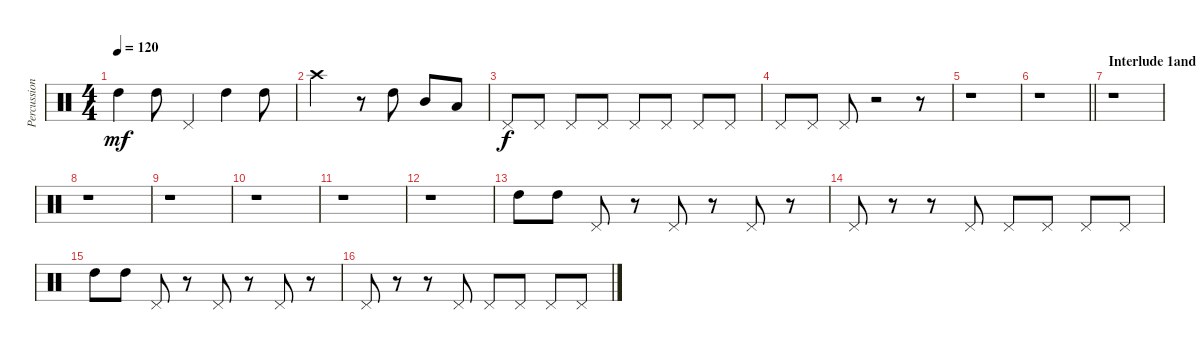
\track ("Percussion" "Percussion") {instrument percussion}
\staff {score}
\articulation defaults
\ts (4 4)
\tempo 120
\clef neutral
\ks c "High Tom (hit)".4{dy mf} "High Tom (hit)".8 "Pedal Hi-Hat (hit)".4 "High Tom (hit)".4 "High Tom (hit)".8
|
"Crash high (hit)".2 r.8 "High Tom (hit)".8 "Mid Tom (hit)".8 "Low Tom (hit)".8 |
"Pedal Hi-Hat (hit)".8{dy f} "Pedal Hi-Hat (hit)".8 "Pedal Hi-Hat (hit)".8 "Pedal Hi-Hat (hit)".8 "Pedal Hi-Hat (hit)".8 "Pedal Hi-Hat (hit)".8 "Pedal Hi-Hat (hit)".8 "Pedal Hi-Hat (hit)".8 |
"Pedal Hi-Hat (hit)".8 "Pedal Hi-Hat (hit)".8 "Pedal Hi-Hat (hit)".8 r.2 r.8 |
r.1 |
\barLineRight lightlight
r.1 |
\section ("" "Interlude 1and Guitar Solo ")
r.1 |
r.1 |
r.1 |
r.1 |
r.1 |
r.1 |
"High Tom (hit)".8 "High Tom (hit)".8 "Pedal Hi-Hat (hit)".8 r.8 "Pedal Hi-Hat (hit)".8 r.8 "Pedal Hi-Hat (hit)".8 r.8 |
"Pedal Hi-Hat (hit)".8 r.8 r.8 "Pedal Hi-Hat (hit)".8 "Pedal Hi-Hat (hit)".8 "Pedal Hi-Hat (hit)".8 "Pedal Hi-Hat (hit)".8 "Pedal Hi-Hat (hit)".8 |
"High Tom (hit)".8 "High Tom (hit)".8 "Pedal Hi-Hat (hit)".8 r.8 "Pedal Hi-Hat (hit)".8 r.8 "Pedal Hi-Hat (hit)".8 r.8 |
"Pedal Hi-Hat (hit)".8 r.8 r.8 "Pedal Hi-Hat (hit)".8 "Pedal Hi-Hat (hit)".8 "Pedal Hi-Hat (hit)".8 "Pedal Hi-Hat (hit)".8 "Pedal Hi-Hat (hit)".8
